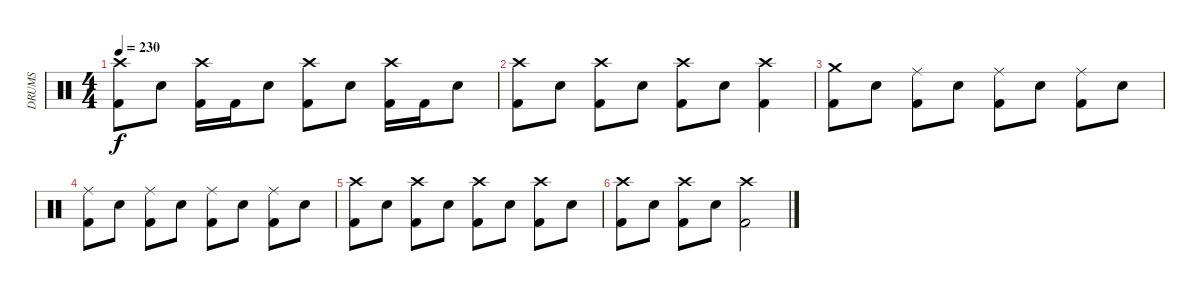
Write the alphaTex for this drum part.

\track ("DRUMS" "DRUMS") {instrument percussion}
\staff {score}
\articulation defaults
\ts (4 4)
\tempo 230
\clef neutral
\ks c
("Kick (hit) 2" "Crash high (hit)").8{dy f} "Snare (hit) 2".8 ("Kick (hit) 2" "Crash high (hit)").16 "Kick (hit) 2".16 "Snare (hit) 2".8 ("Kick (hit) 2" "Crash high (hit)").8 "Snare (hit) 2".8 ("Kick (hit) 2" "Crash high (hit)").16 "Kick (hit) 2".16 "Snare (hit) 2".8 |
("Kick (hit) 2" "Crash high (hit)").8 "Snare (hit) 2".8 ("Kick (hit) 2" "Crash high (hit)").8 "Snare (hit) 2".8 ("Kick (hit) 2" "Crash high (hit)").8 "Snare (hit) 2".8 ("Kick (hit) 2" "Crash high (hit)").4 |
("Kick (hit) 2" "Crash medium (hit)").8 "Snare (hit) 2".8 ("Kick (hit) 2" "Ride (middle)").8 "Snare (hit) 2".8 ("Kick (hit) 2" "Ride (middle)").8 "Snare (hit) 2".8 ("Kick (hit) 2" "Ride (middle)").8 "Snare (hit) 2".8 |
("Kick (hit) 2" "Ride (middle)").8 "Snare (hit) 2".8 ("Kick (hit) 2" "Ride (middle)").8 "Snare (hit) 2".8 ("Kick (hit) 2" "Ride (middle)").8 "Snare (hit) 2".8 ("Kick (hit) 2" "Ride (middle)").8 "Snare (hit) 2".8 |
("Kick (hit) 2" "Crash high (hit)").8 "Snare (hit) 2".8 ("Kick (hit) 2" "Crash high (hit)").8 "Snare (hit) 2".8 ("Kick (hit) 2" "Crash high (hit)").8 "Snare (hit) 2".8 ("Kick (hit) 2" "Crash high (hit)").8 "Snare (hit) 2".8 |
("Kick (hit) 2" "Crash high (hit)").8 "Snare (hit) 2".8 ("Kick (hit) 2" "Crash high (hit)").8 "Snare (hit) 2".8 ("Kick (hit) 2" "Crash high (hit)").2
